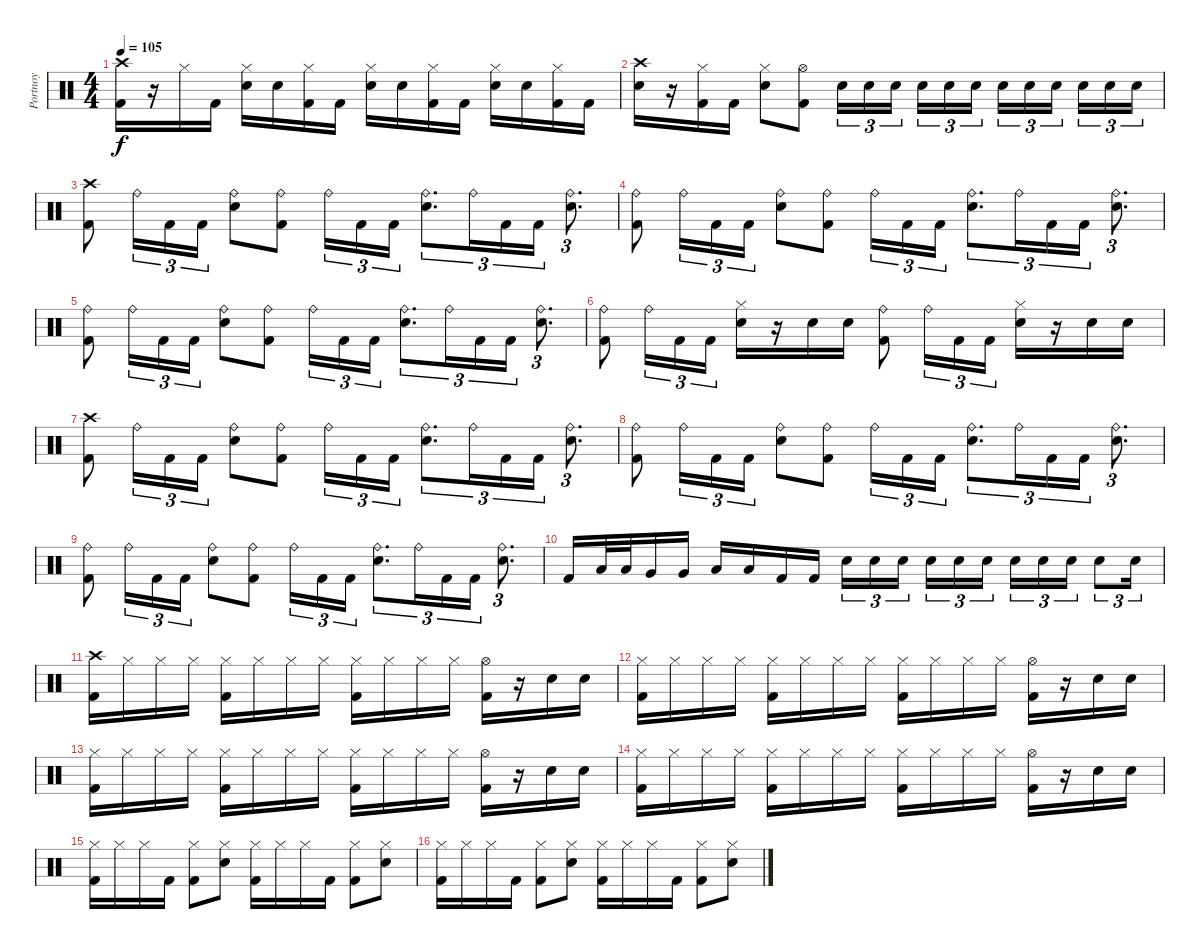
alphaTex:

\track ("Portnoy" "Portnoy") {instrument percussion}
\staff {score}
\articulation defaults
\ts (4 4)
\tempo 105
\clef neutral
\ks c
("Crash high (hit)" "Kick (hit) 2").16{dy f} r.16 "Hi-Hat (closed)".16 "Kick (hit) 2".16 ("Hi-Hat (closed)" "Electric Snare (hit)").16 "Electric Snare (hit)".16 ("Hi-Hat (closed)" "Kick (hit) 2").16 "Kick (hit) 2".16 ("Hi-Hat (closed)" "Electric Snare (hit)").16 "Electric Snare (hit)".16 ("Hi-Hat (closed)" "Kick (hit) 2").16 "Kick (hit) 2".16 ("Hi-Hat (closed)" "Electric Snare (hit)").16 "Electric Snare (hit)".16 ("Hi-Hat (closed)" "Kick (hit) 2").16 "Kick (hit) 2".16 |
("Crash high (hit)" "Electric Snare (hit)").16 r.16 ("Hi-Hat (closed)" "Kick (hit) 2").16 "Kick (hit) 2".16 ("Hi-Hat (closed)" "Electric Snare (hit)").8 ("Hi-Hat (open)" "Kick (hit) 2").8 "Electric Snare (hit)".16{tu (3 2)} "Electric Snare (hit)".16{tu (3 2)} "Electric Snare (hit)".16{tu (3 2) beam splitsecondary} "Electric Snare (hit)".16{tu (3 2)} "Electric Snare (hit)".16{tu (3 2)} "Electric Snare (hit)".16{tu (3 2)} "Electric Snare (hit)".16{tu (3 2)} "Electric Snare (hit)".16{tu (3 2)} "Electric Snare (hit)".16{tu (3 2) beam splitsecondary} "Electric Snare (hit)".16{tu (3 2)} "Electric Snare (hit)".16{tu (3 2)} "Electric Snare (hit)".16{tu (3 2)} |
("Crash high (hit)" "Kick (hit) 2").8 "Ride (bell)".16{tu (3 2)} "Kick (hit) 2".16{tu (3 2)} "Kick (hit) 2".16{tu (3 2)} ("Ride (bell)" "Electric Snare (hit)").8 ("Ride (bell)" "Kick (hit) 2").8 "Ride (bell)".16{tu (3 2)} "Kick (hit) 2".16{tu (3 2)} "Kick (hit) 2".16{tu (3 2)} ("Ride (bell)" "Electric Snare (hit)").8{d tu (3 2)} "Ride (bell)".16{tu (3 2)} "Kick (hit) 2".16{tu (3 2)} "Kick (hit) 2".16{tu (3 2)} ("Ride (bell)" "Electric Snare (hit)").8{d tu (3 2)} |
("Ride (bell)" "Kick (hit) 2").8 "Ride (bell)".16{tu (3 2)} "Kick (hit) 2".16{tu (3 2)} "Kick (hit) 2".16{tu (3 2)} ("Ride (bell)" "Electric Snare (hit)").8 ("Ride (bell)" "Kick (hit) 2").8 "Ride (bell)".16{tu (3 2)} "Kick (hit) 2".16{tu (3 2)} "Kick (hit) 2".16{tu (3 2)} ("Ride (bell)" "Electric Snare (hit)").8{d tu (3 2)} "Ride (bell)".16{tu (3 2)} "Kick (hit) 2".16{tu (3 2)} "Kick (hit) 2".16{tu (3 2)} ("Ride (bell)" "Electric Snare (hit)").8{d tu (3 2)} |
("Ride (bell)" "Kick (hit) 2").8 "Ride (bell)".16{tu (3 2)} "Kick (hit) 2".16{tu (3 2)} "Kick (hit) 2".16{tu (3 2)} ("Ride (bell)" "Electric Snare (hit)").8 ("Ride (bell)" "Kick (hit) 2").8 "Ride (bell)".16{tu (3 2)} "Kick (hit) 2".16{tu (3 2)} "Kick (hit) 2".16{tu (3 2)} ("Ride (bell)" "Electric Snare (hit)").8{d tu (3 2)} "Ride (bell)".16{tu (3 2)} "Kick (hit) 2".16{tu (3 2)} "Kick (hit) 2".16{tu (3 2)} ("Ride (bell)" "Electric Snare (hit)").8{d tu (3 2)} |
("Ride (bell)" "Kick (hit) 2").8 "Ride (bell)".16{tu (3 2)} "Kick (hit) 2".16{tu (3 2)} "Kick (hit) 2".16{tu (3 2)} ("Hi-Hat (closed)" "Electric Snare (hit)").16 r.16 "Electric Snare (hit)".16 "Electric Snare (hit)".16 ("Ride (bell)" "Kick (hit) 2").8 "Ride (bell)".16{tu (3 2)} "Kick (hit) 2".16{tu (3 2)} "Kick (hit) 2".16{tu (3 2)} ("Hi-Hat (closed)" "Electric Snare (hit)").16 r.16 "Electric Snare (hit)".16 "Electric Snare (hit)".16 |
("Crash high (hit)" "Kick (hit) 2").8 "Ride (bell)".16{tu (3 2)} "Kick (hit) 2".16{tu (3 2)} "Kick (hit) 2".16{tu (3 2)} ("Ride (bell)" "Electric Snare (hit)").8 ("Ride (bell)" "Kick (hit) 2").8 "Ride (bell)".16{tu (3 2)} "Kick (hit) 2".16{tu (3 2)} "Kick (hit) 2".16{tu (3 2)} ("Ride (bell)" "Electric Snare (hit)").8{d tu (3 2)} "Ride (bell)".16{tu (3 2)} "Kick (hit) 2".16{tu (3 2)} "Kick (hit) 2".16{tu (3 2)} ("Ride (bell)" "Electric Snare (hit)").8{d tu (3 2)} |
("Ride (bell)" "Kick (hit) 2").8 "Ride (bell)".16{tu (3 2)} "Kick (hit) 2".16{tu (3 2)} "Kick (hit) 2".16{tu (3 2)} ("Ride (bell)" "Electric Snare (hit)").8 ("Ride (bell)" "Kick (hit) 2").8 "Ride (bell)".16{tu (3 2)} "Kick (hit) 2".16{tu (3 2)} "Kick (hit) 2".16{tu (3 2)} ("Ride (bell)" "Electric Snare (hit)").8{d tu (3 2)} "Ride (bell)".16{tu (3 2)} "Kick (hit) 2".16{tu (3 2)} "Kick (hit) 2".16{tu (3 2)} ("Ride (bell)" "Electric Snare (hit)").8{d tu (3 2)} |
("Ride (bell)" "Kick (hit) 2").8 "Ride (bell)".16{tu (3 2)} "Kick (hit) 2".16{tu (3 2)} "Kick (hit) 2".16{tu (3 2)} ("Ride (bell)" "Electric Snare (hit)").8 ("Ride (bell)" "Kick (hit) 2").8 "Ride (bell)".16{tu (3 2)} "Kick (hit) 2".16{tu (3 2)} "Kick (hit) 2".16{tu (3 2)} ("Ride (bell)" "Electric Snare (hit)").8{d tu (3 2)} "Ride (bell)".16{tu (3 2)} "Kick (hit) 2".16{tu (3 2)} "Kick (hit) 2".16{tu (3 2)} ("Ride (bell)" "Electric Snare (hit)").8{d tu (3 2)} |
"Kick (hit) 2".16 "Low Tom (hit)".32 "Low Tom (hit)".32 "Very Low Tom (hit)".16 "Very Low Tom (hit)".16 "Low Floor Tom (hit)".16 "Low Floor Tom (hit)".16 "Kick (hit) 2".16 "Kick (hit) 2".16 "Electric Snare (hit)".16{tu (3 2)} "Electric Snare (hit)".16{tu (3 2)} "Electric Snare (hit)".16{tu (3 2) beam splitsecondary} "Electric Snare (hit)".16{tu (3 2)} "Electric Snare (hit)".16{tu (3 2)} "Electric Snare (hit)".16{tu (3 2)} "Electric Snare (hit)".16{tu (3 2)} "Electric Snare (hit)".16{tu (3 2)} "Electric Snare (hit)".16{tu (3 2)} "Electric Snare (hit)".8{tu (3 2)} "Electric Snare (hit)".16{tu (3 2)} |
("Crash high (hit)" "Kick (hit) 2").16 "Hi-Hat (closed)".16 "Hi-Hat (closed)".16 "Hi-Hat (closed)".16 ("Hi-Hat (closed)" "Kick (hit) 2").16 "Hi-Hat (closed)".16 "Hi-Hat (closed)".16 "Hi-Hat (closed)".16 ("Hi-Hat (closed)" "Kick (hit) 2").16 "Hi-Hat (closed)".16 "Hi-Hat (closed)".16 "Hi-Hat (closed)".16 ("Hi-Hat (open)" "Kick (hit) 2").16 r.16 "Electric Snare (hit)".16 "Electric Snare (hit)".16 |
("Hi-Hat (closed)" "Kick (hit) 2").16 "Hi-Hat (closed)".16 "Hi-Hat (closed)".16 "Hi-Hat (closed)".16 ("Hi-Hat (closed)" "Kick (hit) 2").16 "Hi-Hat (closed)".16 "Hi-Hat (closed)".16 "Hi-Hat (closed)".16 ("Hi-Hat (closed)" "Kick (hit) 2").16 "Hi-Hat (closed)".16 "Hi-Hat (closed)".16 "Hi-Hat (closed)".16 ("Hi-Hat (open)" "Kick (hit) 2").16 r.16 "Electric Snare (hit)".16 "Electric Snare (hit)".16 |
("Hi-Hat (closed)" "Kick (hit) 2").16 "Hi-Hat (closed)".16 "Hi-Hat (closed)".16 "Hi-Hat (closed)".16 ("Hi-Hat (closed)" "Kick (hit) 2").16 "Hi-Hat (closed)".16 "Hi-Hat (closed)".16 "Hi-Hat (closed)".16 ("Hi-Hat (closed)" "Kick (hit) 2").16 "Hi-Hat (closed)".16 "Hi-Hat (closed)".16 "Hi-Hat (closed)".16 ("Hi-Hat (open)" "Kick (hit) 2").16 r.16 "Electric Snare (hit)".16 "Electric Snare (hit)".16 |
("Hi-Hat (closed)" "Kick (hit) 2").16 "Hi-Hat (closed)".16 "Hi-Hat (closed)".16 "Hi-Hat (closed)".16 ("Hi-Hat (closed)" "Kick (hit) 2").16 "Hi-Hat (closed)".16 "Hi-Hat (closed)".16 "Hi-Hat (closed)".16 ("Hi-Hat (closed)" "Kick (hit) 2").16 "Hi-Hat (closed)".16 "Hi-Hat (closed)".16 "Hi-Hat (closed)".16 ("Hi-Hat (open)" "Kick (hit) 2").16 r.16 "Electric Snare (hit)".16 "Electric Snare (hit)".16 |
("Hi-Hat (closed)" "Kick (hit) 2").16 "Hi-Hat (closed)".16 "Hi-Hat (closed)".16 "Kick (hit) 2".16 ("Hi-Hat (closed)" "Kick (hit) 2").8 ("Hi-Hat (closed)" "Electric Snare (hit)").8 ("Hi-Hat (closed)" "Kick (hit) 2").16 "Hi-Hat (closed)".16 "Hi-Hat (closed)".16 "Kick (hit) 2".16 ("Hi-Hat (closed)" "Kick (hit) 2").8 ("Hi-Hat (closed)" "Electric Snare (hit)").8 |
("Hi-Hat (closed)" "Kick (hit) 2").16 "Hi-Hat (closed)".16 "Hi-Hat (closed)".16 "Kick (hit) 2".16 ("Hi-Hat (closed)" "Kick (hit) 2").8 ("Hi-Hat (closed)" "Electric Snare (hit)").8 ("Hi-Hat (closed)" "Kick (hit) 2").16 "Hi-Hat (closed)".16 "Hi-Hat (closed)".16 "Kick (hit) 2".16 ("Hi-Hat (closed)" "Kick (hit) 2").8 ("Hi-Hat (closed)" "Electric Snare (hit)").8
